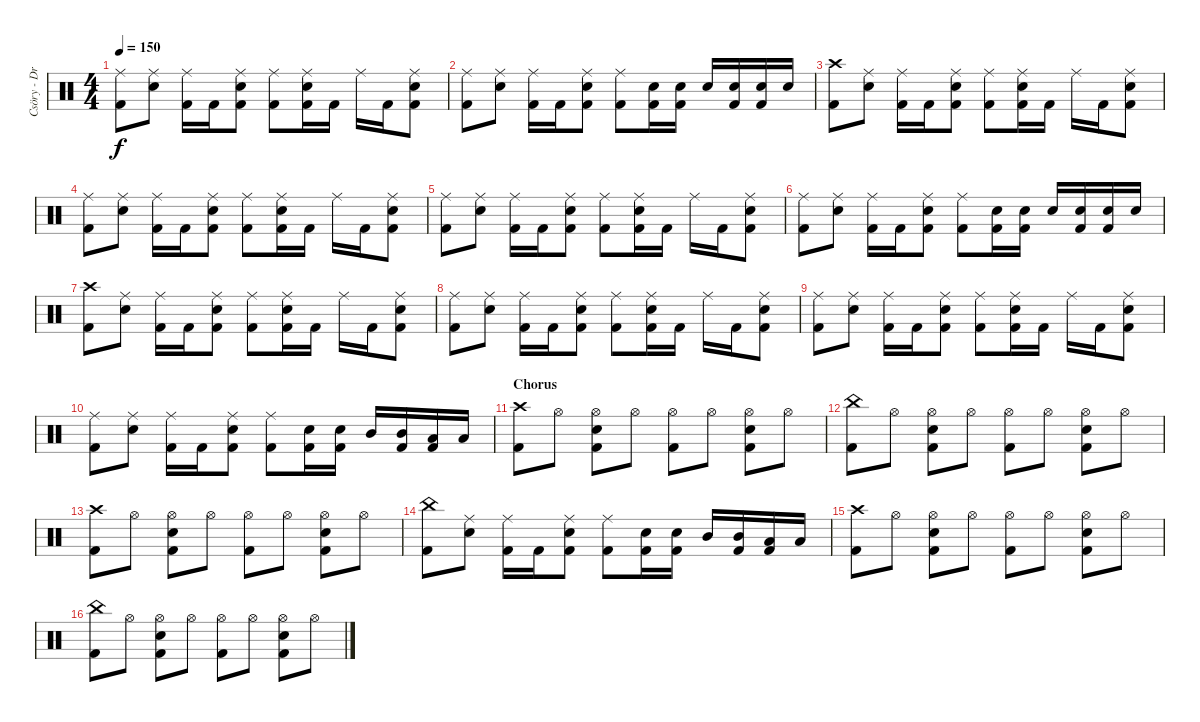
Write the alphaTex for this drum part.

\track ("Csöry - DrumZ" "Csöry - Dr") {instrument percussion}
\staff {score}
\articulation defaults
\ts (4 4)
\tempo 150
\clef neutral
\ks c
("Ride (middle)" "Kick (hit) 2").8{dy f} ("Ride (middle)" "Snare (hit) 2").8 ("Ride (middle)" "Kick (hit) 2").16 "Kick (hit) 2".16 ("Ride (middle)" "Snare (hit) 2" "Kick (hit) 2").8 ("Ride (middle)" "Kick (hit) 2").8 ("Ride (middle)" "Snare (hit) 2" "Kick (hit) 2").16 "Kick (hit) 2".16 "Ride (middle)".16 "Kick (hit) 2".16 ("Ride (middle)" "Snare (hit) 2" "Kick (hit) 2").8 |
("Ride (middle)" "Kick (hit) 2").8 ("Ride (middle)" "Snare (hit) 2").8 ("Ride (middle)" "Kick (hit) 2").16 "Kick (hit) 2".16 ("Ride (middle)" "Snare (hit) 2" "Kick (hit) 2").8 ("Ride (middle)" "Kick (hit) 2").8 ("Snare (hit) 2" "Kick (hit) 2").16 ("Snare (hit) 2" "Kick (hit) 2").16 "Snare (hit) 2".16 ("Snare (hit) 2" "Kick (hit) 2").16 ("Snare (hit) 2" "Kick (hit) 2").16 "Snare (hit) 2".16 |
("Crash high (hit)" "Kick (hit) 2").8 ("Ride (middle)" "Snare (hit) 2").8 ("Ride (middle)" "Kick (hit) 2").16 "Kick (hit) 2".16 ("Ride (middle)" "Snare (hit) 2" "Kick (hit) 2").8 ("Ride (middle)" "Kick (hit) 2").8 ("Ride (middle)" "Snare (hit) 2" "Kick (hit) 2").16 "Kick (hit) 2".16 "Ride (middle)".16 "Kick (hit) 2".16 ("Ride (middle)" "Snare (hit) 2" "Kick (hit) 2").8 |
("Ride (middle)" "Kick (hit) 2").8 ("Ride (middle)" "Snare (hit) 2").8 ("Ride (middle)" "Kick (hit) 2").16 "Kick (hit) 2".16 ("Ride (middle)" "Snare (hit) 2" "Kick (hit) 2").8 ("Ride (middle)" "Kick (hit) 2").8 ("Ride (middle)" "Snare (hit) 2" "Kick (hit) 2").16 "Kick (hit) 2".16 "Ride (middle)".16 "Kick (hit) 2".16 ("Ride (middle)" "Snare (hit) 2" "Kick (hit) 2").8 |
("Ride (middle)" "Kick (hit) 2").8 ("Ride (middle)" "Snare (hit) 2").8 ("Ride (middle)" "Kick (hit) 2").16 "Kick (hit) 2".16 ("Ride (middle)" "Snare (hit) 2" "Kick (hit) 2").8 ("Ride (middle)" "Kick (hit) 2").8 ("Ride (middle)" "Snare (hit) 2" "Kick (hit) 2").16 "Kick (hit) 2".16 "Ride (middle)".16 "Kick (hit) 2".16 ("Ride (middle)" "Snare (hit) 2" "Kick (hit) 2").8 |
("Ride (middle)" "Kick (hit) 2").8 ("Ride (middle)" "Snare (hit) 2").8 ("Ride (middle)" "Kick (hit) 2").16 "Kick (hit) 2".16 ("Ride (middle)" "Snare (hit) 2" "Kick (hit) 2").8 ("Ride (middle)" "Kick (hit) 2").8 ("Snare (hit) 2" "Kick (hit) 2").16 ("Snare (hit) 2" "Kick (hit) 2").16 "Snare (hit) 2".16 ("Snare (hit) 2" "Kick (hit) 2").16 ("Snare (hit) 2" "Kick (hit) 2").16 "Snare (hit) 2".16 |
("Crash high (hit)" "Kick (hit) 2").8 ("Ride (middle)" "Snare (hit) 2").8 ("Ride (middle)" "Kick (hit) 2").16 "Kick (hit) 2".16 ("Ride (middle)" "Snare (hit) 2" "Kick (hit) 2").8 ("Ride (middle)" "Kick (hit) 2").8 ("Ride (middle)" "Snare (hit) 2" "Kick (hit) 2").16 "Kick (hit) 2".16 "Ride (middle)".16 "Kick (hit) 2".16 ("Ride (middle)" "Snare (hit) 2" "Kick (hit) 2").8 |
("Ride (middle)" "Kick (hit) 2").8 ("Ride (middle)" "Snare (hit) 2").8 ("Ride (middle)" "Kick (hit) 2").16 "Kick (hit) 2".16 ("Ride (middle)" "Snare (hit) 2" "Kick (hit) 2").8 ("Ride (middle)" "Kick (hit) 2").8 ("Ride (middle)" "Snare (hit) 2" "Kick (hit) 2").16 "Kick (hit) 2".16 "Ride (middle)".16 "Kick (hit) 2".16 ("Ride (middle)" "Snare (hit) 2" "Kick (hit) 2").8 |
("Ride (middle)" "Kick (hit) 2").8 ("Ride (middle)" "Snare (hit) 2").8 ("Ride (middle)" "Kick (hit) 2").16 "Kick (hit) 2".16 ("Ride (middle)" "Snare (hit) 2" "Kick (hit) 2").8 ("Ride (middle)" "Kick (hit) 2").8 ("Ride (middle)" "Snare (hit) 2" "Kick (hit) 2").16 "Kick (hit) 2".16 "Ride (middle)".16 "Kick (hit) 2".16 ("Ride (middle)" "Snare (hit) 2" "Kick (hit) 2").8 |
("Ride (middle)" "Kick (hit) 2").8 ("Ride (middle)" "Snare (hit) 2").8 ("Ride (middle)" "Kick (hit) 2").16 "Kick (hit) 2".16 ("Ride (middle)" "Snare (hit) 2" "Kick (hit) 2").8 ("Ride (middle)" "Kick (hit) 2").8 ("Snare (hit) 2" "Kick (hit) 2").16 ("Snare (hit) 2" "Kick (hit) 2").16 "Mid Tom (hit)".16 ("Mid Tom (hit)" "Kick (hit) 2").16 ("Low Tom (hit)" "Kick (hit) 2").16 "Low Floor Tom (hit)".16 |
\section ("" "Chorus")
("Crash high (hit)" "Kick (hit) 2").8 "Hi-Hat (open)".8 ("Hi-Hat (open)" "Snare (hit) 2" "Kick (hit) 2").8 "Hi-Hat (open)".8 ("Hi-Hat (open)" "Kick (hit) 2").8 "Hi-Hat (open)".8 ("Hi-Hat (open)" "Snare (hit) 2" "Kick (hit) 2").8 "Hi-Hat (open)".8 |
("China (hit)" "Kick (hit) 2").8 "Hi-Hat (open)".8 ("Hi-Hat (open)" "Snare (hit) 2" "Kick (hit) 2").8 "Hi-Hat (open)".8 ("Hi-Hat (open)" "Kick (hit) 2").8 "Hi-Hat (open)".8 ("Hi-Hat (open)" "Snare (hit) 2" "Kick (hit) 2").8 "Hi-Hat (open)".8 |
("Crash high (hit)" "Kick (hit) 2").8 "Hi-Hat (open)".8 ("Hi-Hat (open)" "Snare (hit) 2" "Kick (hit) 2").8 "Hi-Hat (open)".8 ("Hi-Hat (open)" "Kick (hit) 2").8 "Hi-Hat (open)".8 ("Hi-Hat (open)" "Snare (hit) 2" "Kick (hit) 2").8 "Hi-Hat (open)".8 |
("China (hit)" "Kick (hit) 2").8 ("Ride (middle)" "Snare (hit) 2").8 ("Ride (middle)" "Kick (hit) 2").16 "Kick (hit) 2".16 ("Ride (middle)" "Snare (hit) 2" "Kick (hit) 2").8 ("Ride (middle)" "Kick (hit) 2").8 ("Snare (hit) 2" "Kick (hit) 2").16 ("Snare (hit) 2" "Kick (hit) 2").16 "Mid Tom (hit)".16 ("Mid Tom (hit)" "Kick (hit) 2").16 ("Low Tom (hit)" "Kick (hit) 2").16 "Low Floor Tom (hit)".16 |
("Crash high (hit)" "Kick (hit) 2").8 "Hi-Hat (open)".8 ("Hi-Hat (open)" "Snare (hit) 2" "Kick (hit) 2").8 "Hi-Hat (open)".8 ("Hi-Hat (open)" "Kick (hit) 2").8 "Hi-Hat (open)".8 ("Hi-Hat (open)" "Snare (hit) 2" "Kick (hit) 2").8 "Hi-Hat (open)".8 |
("China (hit)" "Kick (hit) 2").8 "Hi-Hat (open)".8 ("Hi-Hat (open)" "Snare (hit) 2" "Kick (hit) 2").8 "Hi-Hat (open)".8 ("Hi-Hat (open)" "Kick (hit) 2").8 "Hi-Hat (open)".8 ("Hi-Hat (open)" "Snare (hit) 2" "Kick (hit) 2").8 "Hi-Hat (open)".8
